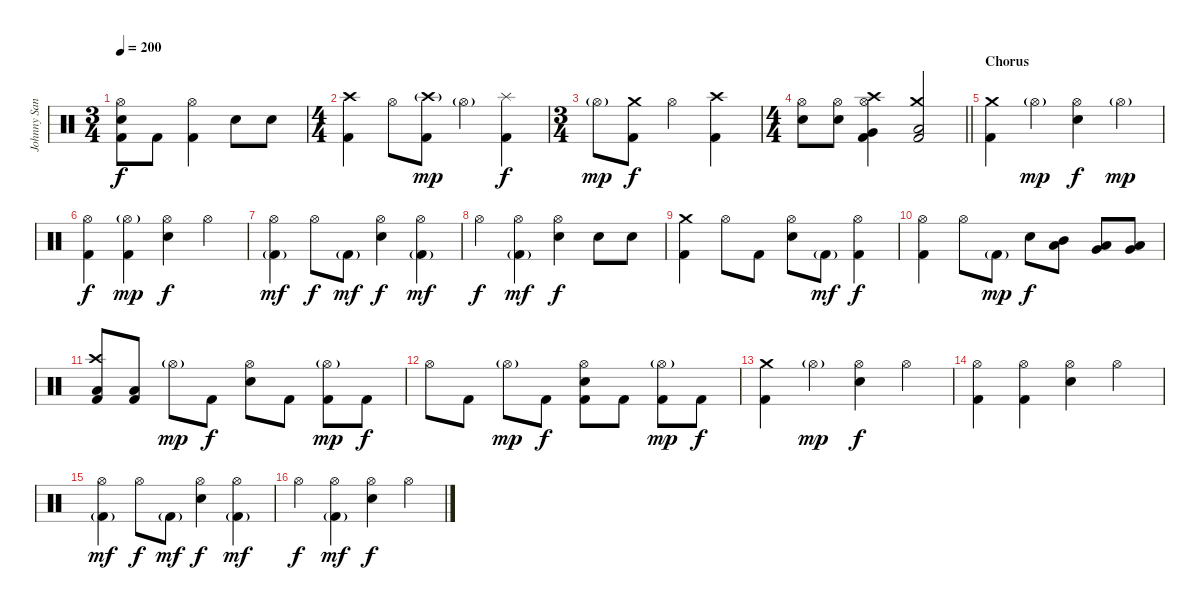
\track ("Johnny Sandin" "Johnny San") {instrument percussion}
\staff {score}
\articulation defaults
\ts (3 4)
\tempo 200
\clef neutral
\ks c
("Hi-Hat (open)" "Snare (hit) 2" "Kick (hit) 2").8{dy f} "Kick (hit) 2".8 ("Hi-Hat (open)" "Kick (hit) 2").4 "Snare (hit) 2".8 "Snare (hit) 2".8 |
\ts (4 4)
("Crash high (hit)" "Kick (hit) 2").4 "Hi-Hat (open)".8 ("Crash high (hit)"{g} "Kick (hit) 2").8{dy mp} "Hi-Hat (open)"{g}.4 ("Splash (hit)" "Kick (hit) 2").4{dy f} |
\ts (3 4)
"Hi-Hat (open)"{g}.8{dy mp} ("Crash medium (hit)" "Kick (hit) 2").8{dy f} "Hi-Hat (open)".4 ("Crash high (hit)" "Kick (hit) 2").4 |
\ts (4 4)
\barLineRight lightlight
("Hi-Hat (open)" "Snare (hit) 2").8 ("Hi-Hat (open)" "Snare (hit) 2").8 ("Crash high (hit)" "Very Low Tom (hit)" "Kick (hit) 2" "Hi-Hat (open)").4 ("Crash medium (hit)" "Low Floor Tom (hit)" "Kick (hit) 2").2 |
\section ("" "Chorus")
("Crash medium (hit)" "Kick (hit) 2").4 "Hi-Hat (open)"{g}.4{dy mp} ("Hi-Hat (open)" "Snare (hit) 2").4{dy f} "Hi-Hat (open)"{g}.4{dy mp} |
("Hi-Hat (open)" "Kick (hit) 2").4{dy f} ("Hi-Hat (open)"{g} "Kick (hit) 2").4{dy mp} ("Hi-Hat (open)" "Snare (hit) 2").4{dy f} "Hi-Hat (open)".4 |
("Hi-Hat (open)" "Kick (hit) 2"{g}).4{dy mf} "Hi-Hat (open)".8{dy f} "Kick (hit) 2"{g}.8{dy mf} ("Hi-Hat (open)" "Snare (hit) 2").4{dy f} ("Hi-Hat (open)" "Kick (hit) 2"{g}).4{dy mf} |
"Hi-Hat (open)".4{dy f} ("Hi-Hat (open)" "Kick (hit) 2"{g}).4{dy mf} ("Hi-Hat (open)" "Snare (hit) 2").4{dy f} "Snare (hit) 2".8 "Snare (hit) 2".8 |
("Crash medium (hit)" "Kick (hit) 2").4 "Hi-Hat (open)".8 "Kick (hit) 2".8 ("Hi-Hat (open)" "Snare (hit) 2").8 "Kick (hit) 2"{g}.8{dy mf} ("Hi-Hat (open)" "Kick (hit) 2").4{dy f} |
("Hi-Hat (open)" "Kick (hit) 2").4 "Hi-Hat (open)".8 "Kick (hit) 2"{g}.8{dy mp} "Snare (hit) 2".8{dy f} ("Mid Tom (hit)" "Low Tom (hit)").8 ("Low Tom (hit)" "Very Low Tom (hit)").8 ("Very Low Tom (hit)" "Low Floor Tom (hit)").8 |
("Crash high (hit)" "Low Floor Tom (hit)" "Kick (hit) 2").8 ("Low Floor Tom (hit)" "Kick (hit) 2").8 "Hi-Hat (open)"{g}.8{dy mp} "Kick (hit) 2".8{dy f} ("Hi-Hat (open)" "Snare (hit) 2").8 "Kick (hit) 2".8 ("Hi-Hat (open)"{g} "Kick (hit) 2").8{dy mp} "Kick (hit) 2".8{dy f} |
"Hi-Hat (open)".8 "Kick (hit) 2".8 "Hi-Hat (open)"{g}.8{dy mp} "Kick (hit) 2".8{dy f} ("Hi-Hat (open)" "Snare (hit) 2" "Kick (hit) 2").8 "Kick (hit) 2".8 ("Hi-Hat (open)"{g} "Kick (hit) 2").8{dy mp} "Kick (hit) 2".8{dy f} |
("Crash medium (hit)" "Kick (hit) 2").4 "Hi-Hat (open)"{g}.4{dy mp} ("Hi-Hat (open)" "Snare (hit) 2").4{dy f} "Hi-Hat (open)".4 |
("Hi-Hat (open)" "Kick (hit) 2").4 ("Hi-Hat (open)" "Kick (hit) 2").4 ("Hi-Hat (open)" "Snare (hit) 2").4 "Hi-Hat (open)".4 |
("Hi-Hat (open)" "Kick (hit) 2"{g}).4{dy mf} "Hi-Hat (open)".8{dy f} "Kick (hit) 2"{g}.8{dy mf} ("Hi-Hat (open)" "Snare (hit) 2").4{dy f} ("Hi-Hat (open)" "Kick (hit) 2"{g}).4{dy mf} |
"Hi-Hat (open)".4{dy f} ("Hi-Hat (open)" "Kick (hit) 2"{g}).4{dy mf} ("Hi-Hat (open)" "Snare (hit) 2").4{dy f} "Hi-Hat (open)".4
